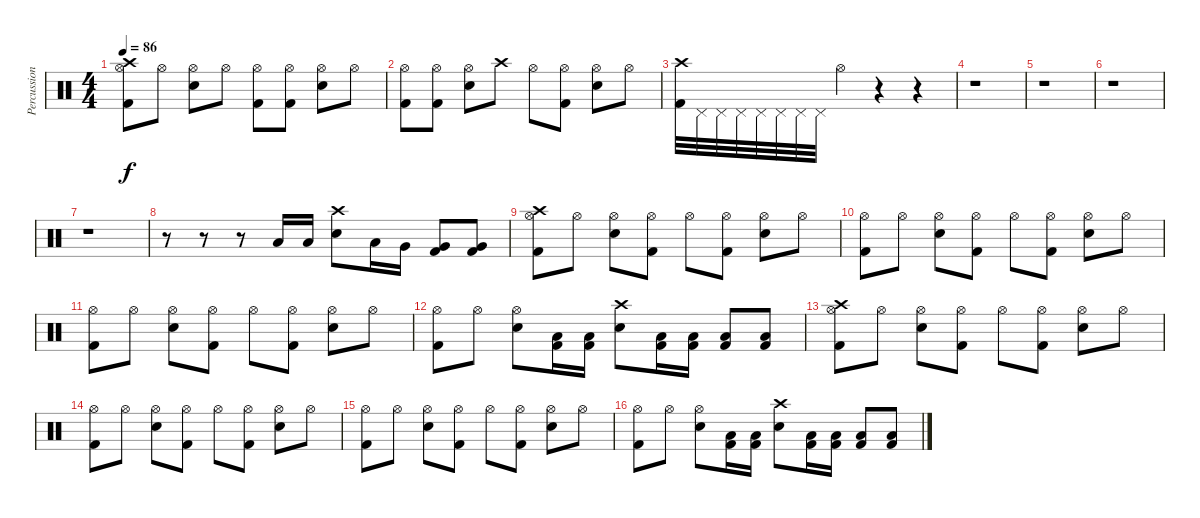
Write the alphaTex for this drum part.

\track ("Percussion" "Percussion") {instrument percussion}
\staff {score}
\articulation defaults
\ts (4 4)
\tempo 86
\clef neutral
\ks c
("Kick (hit) 2" "Hi-Hat (open)" "Crash high (hit)").8{dy f} "Hi-Hat (open)".8 ("Snare (hit) 2" "Hi-Hat (open)").8 "Hi-Hat (open)".8 ("Kick (hit) 2" "Hi-Hat (open)").8 ("Kick (hit) 2" "Hi-Hat (open)").8 ("Snare (hit) 2" "Hi-Hat (open)").8 "Hi-Hat (open)".8 |
("Kick (hit) 2" "Hi-Hat (open)").8 ("Kick (hit) 2" "Hi-Hat (open)").8 ("Snare (hit) 2" "Hi-Hat (open)").8 "Crash high (hit)".8 "Hi-Hat (open)".8 ("Kick (hit) 2" "Hi-Hat (open)").8 ("Snare (hit) 2" "Hi-Hat (open)").8 "Hi-Hat (open)".8 |
("Kick (hit) 2" "Crash high (hit)").32 "Pedal Hi-Hat (hit)".32 "Pedal Hi-Hat (hit)".32 "Pedal Hi-Hat (hit)".32 "Pedal Hi-Hat (hit)".32 "Pedal Hi-Hat (hit)".32 "Pedal Hi-Hat (hit)".32 "Pedal Hi-Hat (hit)".32 "Hi-Hat (open)".4 r.4 r.4 |
r.1 |
r.1 |
r.1 |
r.1 |
r.8 r.8 r.8 "Low Tom (hit)".16 "Low Tom (hit)".16 ("Snare (hit) 2" "Crash high (hit)").8 "Low Tom (hit)".16 "Very Low Tom (hit)".16 ("Very Low Tom (hit)" "Kick (hit) 2").8 ("Very Low Tom (hit)" "Kick (hit) 2").8 |
("Kick (hit) 2" "Hi-Hat (open)" "Crash high (hit)").8 "Hi-Hat (open)".8 ("Snare (hit) 2" "Hi-Hat (open)").8 ("Kick (hit) 2" "Hi-Hat (open)").8 "Hi-Hat (open)".8 ("Kick (hit) 2" "Hi-Hat (open)").8 ("Snare (hit) 2" "Hi-Hat (open)").8 "Hi-Hat (open)".8 |
("Kick (hit) 2" "Hi-Hat (open)").8 "Hi-Hat (open)".8 ("Snare (hit) 2" "Hi-Hat (open)").8 ("Kick (hit) 2" "Hi-Hat (open)").8 "Hi-Hat (open)".8 ("Kick (hit) 2" "Hi-Hat (open)").8 ("Snare (hit) 2" "Hi-Hat (open)").8 "Hi-Hat (open)".8 |
("Kick (hit) 2" "Hi-Hat (open)").8 "Hi-Hat (open)".8 ("Snare (hit) 2" "Hi-Hat (open)").8 ("Kick (hit) 2" "Hi-Hat (open)").8 "Hi-Hat (open)".8 ("Kick (hit) 2" "Hi-Hat (open)").8 ("Snare (hit) 2" "Hi-Hat (open)").8 "Hi-Hat (open)".8 |
("Kick (hit) 2" "Hi-Hat (open)").8 "Hi-Hat (open)".8 ("Snare (hit) 2" "Hi-Hat (open)").8 ("Low Tom (hit)" "Kick (hit) 2").16 ("Low Tom (hit)" "Kick (hit) 2").16 ("Snare (hit) 2" "Crash high (hit)").8 ("Low Tom (hit)" "Kick (hit) 2").16 ("Low Tom (hit)" "Kick (hit) 2").16 ("Low Tom (hit)" "Kick (hit) 2").8 ("Low Tom (hit)" "Kick (hit) 2").8 |
("Kick (hit) 2" "Hi-Hat (open)" "Crash high (hit)").8 "Hi-Hat (open)".8 ("Snare (hit) 2" "Hi-Hat (open)").8 ("Kick (hit) 2" "Hi-Hat (open)").8 "Hi-Hat (open)".8 ("Kick (hit) 2" "Hi-Hat (open)").8 ("Snare (hit) 2" "Hi-Hat (open)").8 "Hi-Hat (open)".8 |
("Kick (hit) 2" "Hi-Hat (open)").8 "Hi-Hat (open)".8 ("Snare (hit) 2" "Hi-Hat (open)").8 ("Kick (hit) 2" "Hi-Hat (open)").8 "Hi-Hat (open)".8 ("Kick (hit) 2" "Hi-Hat (open)").8 ("Snare (hit) 2" "Hi-Hat (open)").8 "Hi-Hat (open)".8 |
("Kick (hit) 2" "Hi-Hat (open)").8 "Hi-Hat (open)".8 ("Snare (hit) 2" "Hi-Hat (open)").8 ("Kick (hit) 2" "Hi-Hat (open)").8 "Hi-Hat (open)".8 ("Kick (hit) 2" "Hi-Hat (open)").8 ("Snare (hit) 2" "Hi-Hat (open)").8 "Hi-Hat (open)".8 |
("Kick (hit) 2" "Hi-Hat (open)").8 "Hi-Hat (open)".8 ("Snare (hit) 2" "Hi-Hat (open)").8 ("Low Tom (hit)" "Kick (hit) 2").16 ("Low Tom (hit)" "Kick (hit) 2").16 ("Snare (hit) 2" "Crash high (hit)").8 ("Low Tom (hit)" "Kick (hit) 2").16 ("Low Tom (hit)" "Kick (hit) 2").16 ("Low Tom (hit)" "Kick (hit) 2").8 ("Low Tom (hit)" "Kick (hit) 2").8
